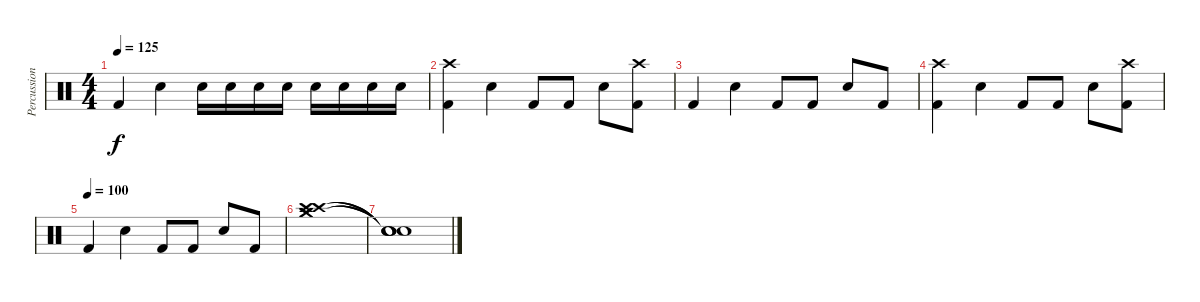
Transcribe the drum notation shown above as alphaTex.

\track ("Percussion" "Percussion") {instrument percussion}
\staff {score}
\articulation defaults
\ts (4 4)
\tempo 125
\clef neutral
\ks c "Kick (hit) 2".4{dy f} "Snare (hit) 2".4 "Snare (hit) 2".16 "Snare (hit) 2".16 "Snare (hit) 2".16 "Snare (hit) 2".16 "Snare (hit) 2".16 "Snare (hit) 2".16 "Snare (hit) 2".16 "Snare (hit) 2".16
|
("Crash high (hit)" "Kick (hit) 2").4 "Snare (hit) 2".4 "Kick (hit) 2".8 "Kick (hit) 2".8 "Snare (hit) 2".8 ("Crash high (hit)" "Kick (hit) 2").8 |
"Kick (hit) 2".4 "Snare (hit) 2".4 "Kick (hit) 2".8 "Kick (hit) 2".8 "Snare (hit) 2".8 "Kick (hit) 2".8 |
("Crash high (hit)" "Kick (hit) 2").4 "Snare (hit) 2".4 "Kick (hit) 2".8 "Kick (hit) 2".8 "Snare (hit) 2".8 ("Crash high (hit)" "Kick (hit) 2").8 |
\tempo (100)
"Kick (hit) 2".4 "Snare (hit) 2".4 "Kick (hit) 2".8 "Kick (hit) 2".8 "Snare (hit) 2".8 "Kick (hit) 2".8 |
("Crash high (hit)" "Crash medium (hit)" "Crash medium (hit)" "Crash high (hit)").1 |
("Snare (hit)"{t} "Snare (hit)"{t} "Snare (hit)"{t} "Snare (hit)"{t}).1
